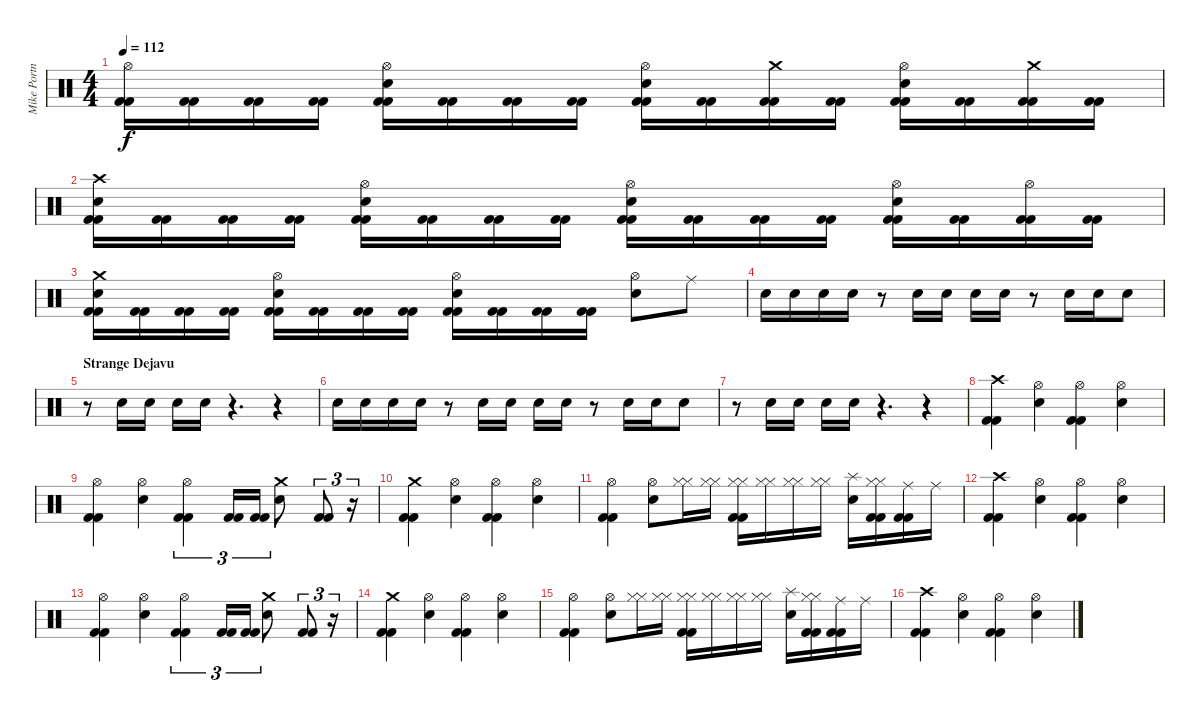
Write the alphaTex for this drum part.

\track ("Mike Portnoy - Drum" "Mike Portn") {instrument percussion}
\staff {score}
\articulation defaults
\ts (4 4)
\tempo 112
\clef neutral
\ks c
("Hi-Hat (open)" "Kick (hit) 2" "Kick (hit) 2").16{dy f} ("Kick (hit) 2" "Kick (hit) 2").16 ("Kick (hit) 2" "Kick (hit) 2").16 ("Kick (hit) 2" "Kick (hit) 2").16 ("Hi-Hat (open)" "Snare (hit) 2" "Kick (hit) 2" "Kick (hit) 2").16 ("Kick (hit) 2" "Kick (hit) 2").16 ("Kick (hit) 2" "Kick (hit) 2").16 ("Kick (hit) 2" "Kick (hit) 2").16 ("Hi-Hat (open)" "Snare (hit) 2" "Kick (hit) 2" "Kick (hit) 2").16 ("Kick (hit) 2" "Kick (hit) 2").16 ("Crash medium (hit)" "Kick (hit) 2" "Kick (hit) 2").16 ("Kick (hit) 2" "Kick (hit) 2").16 ("Hi-Hat (open)" "Snare (hit) 2" "Kick (hit) 2" "Kick (hit) 2").16 ("Kick (hit) 2" "Kick (hit) 2").16 ("Crash medium (hit)" "Kick (hit) 2" "Kick (hit) 2").16 ("Kick (hit) 2" "Kick (hit) 2").16 |
("Crash high (hit)" "Snare (hit) 2" "Kick (hit) 2" "Kick (hit) 2").16 ("Kick (hit) 2" "Kick (hit) 2").16 ("Kick (hit) 2" "Kick (hit) 2").16 ("Kick (hit) 2" "Kick (hit) 2").16 ("Hi-Hat (open)" "Snare (hit) 2" "Kick (hit) 2" "Kick (hit) 2").16 ("Kick (hit) 2" "Kick (hit) 2").16 ("Kick (hit) 2" "Kick (hit) 2").16 ("Kick (hit) 2" "Kick (hit) 2").16 ("Hi-Hat (open)" "Snare (hit) 2" "Kick (hit) 2" "Kick (hit) 2").16 ("Kick (hit) 2" "Kick (hit) 2").16 ("Kick (hit) 2" "Kick (hit) 2").16 ("Kick (hit) 2" "Kick (hit) 2").16 ("Hi-Hat (open)" "Snare (hit) 2" "Kick (hit) 2" "Kick (hit) 2").16 ("Kick (hit) 2" "Kick (hit) 2").16 ("Hi-Hat (open)" "Kick (hit) 2" "Kick (hit) 2").16 ("Kick (hit) 2" "Kick (hit) 2").16 |
("Crash medium (hit)" "Snare (hit) 2" "Kick (hit) 2" "Kick (hit) 2").16 ("Kick (hit) 2" "Kick (hit) 2").16 ("Kick (hit) 2" "Kick (hit) 2").16 ("Kick (hit) 2" "Kick (hit) 2").16 ("Hi-Hat (open)" "Snare (hit) 2" "Kick (hit) 2" "Kick (hit) 2").16 ("Kick (hit) 2" "Kick (hit) 2").16 ("Kick (hit) 2" "Kick (hit) 2").16 ("Kick (hit) 2" "Kick (hit) 2").16 ("Hi-Hat (open)" "Snare (hit) 2" "Kick (hit) 2" "Kick (hit) 2").16 ("Kick (hit) 2" "Kick (hit) 2").16 ("Kick (hit) 2" "Kick (hit) 2").16 ("Kick (hit) 2" "Kick (hit) 2").16 ("Hi-Hat (open)" "Snare (hit) 2").8 "Ride (middle)".8 |
"Snare (hit) 2".16 "Snare (hit) 2".16 "Snare (hit) 2".16 "Snare (hit) 2".16 r.8 "Snare (hit) 2".16 "Snare (hit) 2".16 "Snare (hit) 2".16 "Snare (hit) 2".16 r.8 "Snare (hit) 2".16 "Snare (hit) 2".16 "Snare (hit) 2".8 |
\section ("" "Strange Dejavu")
r.8 "Snare (hit) 2".16 "Snare (hit) 2".16 "Snare (hit) 2".16 "Snare (hit) 2".16 r.4{d} r.4 |
"Snare (hit) 2".16 "Snare (hit) 2".16 "Snare (hit) 2".16 "Snare (hit) 2".16 r.8 "Snare (hit) 2".16 "Snare (hit) 2".16 "Snare (hit) 2".16 "Snare (hit) 2".16 r.8 "Snare (hit) 2".16 "Snare (hit) 2".16 "Snare (hit) 2".8 |
r.8 "Snare (hit) 2".16 "Snare (hit) 2".16 "Snare (hit) 2".16 "Snare (hit) 2".16 r.4{d} r.4 |
("Crash high (hit)" "Kick (hit) 2" "Kick (hit) 2").4 ("Hi-Hat (open)" "Snare (hit) 2").4 ("Hi-Hat (open)" "Kick (hit) 2" "Kick (hit) 2").4 ("Hi-Hat (open)" "Snare (hit) 2").4 |
("Hi-Hat (open)" "Kick (hit) 2" "Kick (hit) 2").4 ("Hi-Hat (open)" "Snare (hit) 2").4 ("Hi-Hat (open)" "Kick (hit) 2" "Kick (hit) 2").4{tu (3 2)} ("Kick (hit) 2" "Kick (hit) 2").16{tu (3 2)} ("Kick (hit) 2" "Kick (hit) 2").16{tu (3 2)} ("Crash medium (hit)" "Snare (hit) 2").8 ("Kick (hit) 2" "Kick (hit) 2").8{tu (3 2)} r.16{tu (3 2)} |
("Crash medium (hit)" "Kick (hit) 2" "Kick (hit) 2").4 ("Hi-Hat (open)" "Snare (hit) 2").4 ("Hi-Hat (open)" "Kick (hit) 2" "Kick (hit) 2").4 ("Hi-Hat (open)" "Snare (hit) 2").4 |
("Hi-Hat (open)" "Kick (hit) 2" "Kick (hit) 2").4 ("Hi-Hat (open)" "Snare (hit) 2").8 ("Hi-Hat (closed)" "Hi-Hat (closed)").16 ("Hi-Hat (closed)" "Hi-Hat (closed)").16 ("Hi-Hat (closed)" "Hi-Hat (closed)" "Kick (hit) 2" "Kick (hit) 2").16 ("Hi-Hat (closed)" "Hi-Hat (closed)").16 ("Hi-Hat (closed)" "Hi-Hat (closed)").16 ("Hi-Hat (closed)" "Hi-Hat (closed)").16 ("Splash (hit)" "Snare (hit) 2").16 ("Hi-Hat (closed)" "Hi-Hat (closed)" "Kick (hit) 2" "Kick (hit) 2").16 ("Ride (middle)" "Kick (hit) 2" "Kick (hit) 2").16 "Ride (middle)".16 |
("Crash high (hit)" "Kick (hit) 2" "Kick (hit) 2").4 ("Hi-Hat (open)" "Snare (hit) 2").4 ("Hi-Hat (open)" "Kick (hit) 2" "Kick (hit) 2").4 ("Hi-Hat (open)" "Snare (hit) 2").4 |
("Hi-Hat (open)" "Kick (hit) 2" "Kick (hit) 2").4 ("Hi-Hat (open)" "Snare (hit) 2").4 ("Hi-Hat (open)" "Kick (hit) 2" "Kick (hit) 2").4{tu (3 2)} ("Kick (hit) 2" "Kick (hit) 2").16{tu (3 2)} ("Kick (hit) 2" "Kick (hit) 2").16{tu (3 2)} ("Crash medium (hit)" "Snare (hit) 2").8 ("Kick (hit) 2" "Kick (hit) 2").8{tu (3 2)} r.16{tu (3 2)} |
("Crash medium (hit)" "Kick (hit) 2" "Kick (hit) 2").4 ("Hi-Hat (open)" "Snare (hit) 2").4 ("Hi-Hat (open)" "Kick (hit) 2" "Kick (hit) 2").4 ("Hi-Hat (open)" "Snare (hit) 2").4 |
("Hi-Hat (open)" "Kick (hit) 2" "Kick (hit) 2").4 ("Hi-Hat (open)" "Snare (hit) 2").8 ("Hi-Hat (closed)" "Hi-Hat (closed)").16 ("Hi-Hat (closed)" "Hi-Hat (closed)").16 ("Hi-Hat (closed)" "Hi-Hat (closed)" "Kick (hit) 2" "Kick (hit) 2").16 ("Hi-Hat (closed)" "Hi-Hat (closed)").16 ("Hi-Hat (closed)" "Hi-Hat (closed)").16 ("Hi-Hat (closed)" "Hi-Hat (closed)").16 ("Splash (hit)" "Snare (hit) 2").16 ("Hi-Hat (closed)" "Hi-Hat (closed)" "Kick (hit) 2" "Kick (hit) 2").16 ("Ride (middle)" "Kick (hit) 2" "Kick (hit) 2").16 "Ride (middle)".16 |
("Crash high (hit)" "Kick (hit) 2" "Kick (hit) 2").4 ("Hi-Hat (open)" "Snare (hit) 2").4 ("Hi-Hat (open)" "Kick (hit) 2" "Kick (hit) 2").4 ("Hi-Hat (open)" "Snare (hit) 2").4
